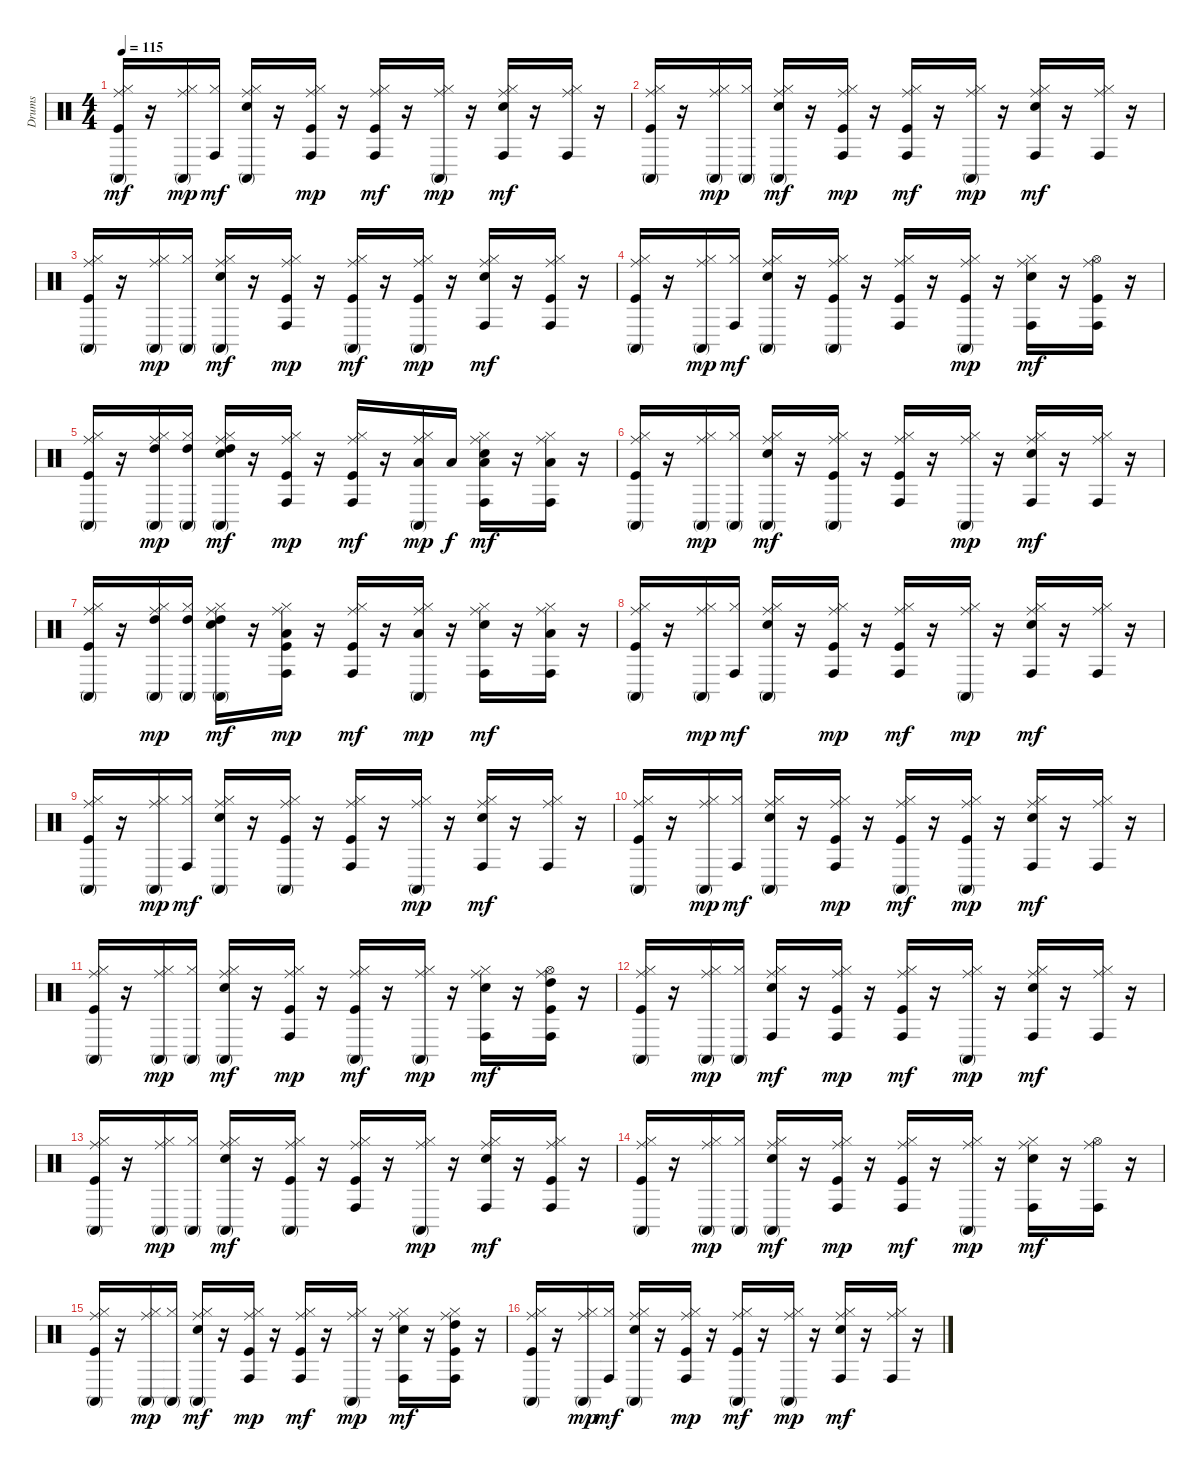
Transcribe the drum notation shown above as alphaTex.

\track ("Drums" "Drums") {instrument percussion}
\staff {score}
\articulation defaults
\ts (4 4)
\tempo 115
\clef neutral
\ks c
("Kick (hit)" "Hi-Hat (closed)" "Ride (middle)" "Conga high (mute)").16{dy mf} r.16 ("Hi-Hat (closed)" "Ride (middle)" "Conga high (mute)").16{dy mp} ("Hi-Hat (closed)" "Conga high (hit)").16{dy mf} ("Snare (hit) 2" "Hi-Hat (closed)" "Ride (middle)" "Conga high (mute)").16 r.16 ("Kick (hit)" "Hi-Hat (closed)" "Ride (middle)" "Conga high (hit)").16{dy mp} r.16 ("Kick (hit)" "Hi-Hat (closed)" "Ride (middle)" "Conga high (hit)").16{dy mf} r.16 ("Hi-Hat (closed)" "Ride (middle)" "Conga high (mute)").16{dy mp} r.16 ("Snare (hit) 2" "Hi-Hat (closed)" "Ride (middle)" "Conga high (hit)").16{dy mf} r.16 ("Hi-Hat (closed)" "Ride (middle)" "Conga high (hit)").16 r.16 |
("Kick (hit)" "Hi-Hat (closed)" "Ride (middle)" "Conga high (mute)").16 r.16 ("Hi-Hat (closed)" "Ride (middle)" "Conga high (mute)").16{dy mp} ("Hi-Hat (closed)" "Conga high (mute)").16 ("Snare (hit) 2" "Hi-Hat (closed)" "Ride (middle)" "Conga high (mute)").16{dy mf} r.16 ("Kick (hit)" "Hi-Hat (closed)" "Ride (middle)" "Conga high (hit)").16{dy mp} r.16 ("Kick (hit)" "Hi-Hat (closed)" "Ride (middle)" "Conga high (hit)").16{dy mf} r.16 ("Hi-Hat (closed)" "Ride (middle)" "Conga high (mute)").16{dy mp} r.16 ("Snare (hit) 2" "Hi-Hat (closed)" "Ride (middle)" "Conga high (hit)").16{dy mf} r.16 ("Hi-Hat (closed)" "Ride (middle)" "Conga high (hit)").16 r.16 |
("Kick (hit)" "Hi-Hat (closed)" "Ride (middle)" "Conga high (mute)").16 r.16 ("Hi-Hat (closed)" "Ride (middle)" "Conga high (mute)").16{dy mp} ("Hi-Hat (closed)" "Conga high (mute)").16 ("Snare (hit) 2" "Hi-Hat (closed)" "Ride (middle)" "Conga high (mute)").16{dy mf} r.16 ("Kick (hit)" "Hi-Hat (closed)" "Ride (middle)" "Conga high (hit)").16{dy mp} r.16 ("Kick (hit)" "Hi-Hat (closed)" "Ride (middle)" "Conga high (mute)").16{dy mf} r.16 ("Kick (hit)" "Hi-Hat (closed)" "Ride (middle)" "Conga high (mute)").16{dy mp} r.16 ("Snare (hit) 2" "Hi-Hat (closed)" "Ride (middle)" "Conga high (hit)").16{dy mf} r.16 ("Kick (hit)" "Hi-Hat (closed)" "Ride (middle)" "Conga high (hit)").16 r.16 |
("Kick (hit)" "Hi-Hat (closed)" "Ride (middle)" "Conga high (mute)").16 r.16 ("Hi-Hat (closed)" "Ride (middle)" "Conga high (mute)").16{dy mp} ("Hi-Hat (closed)" "Conga high (hit)").16{dy mf} ("Snare (hit) 2" "Hi-Hat (closed)" "Ride (middle)" "Conga high (mute)").16 r.16 ("Kick (hit)" "Hi-Hat (closed)" "Ride (middle)" "Conga high (mute)").16 r.16 ("Kick (hit)" "Hi-Hat (closed)" "Ride (middle)" "Conga high (hit)").16 r.16 ("Kick (hit)" "Hi-Hat (closed)" "Ride (middle)" "Conga high (mute)").16{dy mp} r.16 ("Snare (hit) 2" "Hi-Hat (closed)" "Ride (middle)" "Conga high (hit)").16{dy mf} r.16 ("Kick (hit)" "Hi-Hat (open)" "Ride (middle)" "Conga high (hit)").16 r.16 |
("Kick (hit)" "Hi-Hat (closed)" "Ride (middle)" "Conga high (mute)").16 r.16 ("Hi-Hat (closed)" "Ride (middle)" "High Tom (hit)" "Conga high (mute)").16{dy mp} ("Hi-Hat (closed)" "High Tom (hit)" "Conga high (mute)").16 ("Snare (hit) 2" "Hi-Hat (closed)" "Ride (middle)" "High Tom (hit)" "Conga high (mute)").16{dy mf} r.16 ("Kick (hit)" "Hi-Hat (closed)" "Ride (middle)" "Conga high (hit)").16{dy mp} r.16 ("Kick (hit)" "Hi-Hat (closed)" "Ride (middle)" "Conga high (hit)").16{dy mf} r.16 ("Hi-Hat (closed)" "Ride (middle)" "Low Tom (hit)" "Conga high (mute)").16{dy mp} "Low Tom (hit)".16{dy f} ("Snare (hit) 2" "Hi-Hat (closed)" "Ride (middle)" "Low Tom (hit)" "Conga high (hit)").16{dy mf} r.16 ("Hi-Hat (closed)" "Ride (middle)" "Low Tom (hit)" "Conga high (hit)").16 r.16 |
("Kick (hit)" "Hi-Hat (closed)" "Ride (middle)" "Conga high (mute)").16 r.16 ("Hi-Hat (closed)" "Ride (middle)" "Conga high (mute)").16{dy mp} ("Hi-Hat (closed)" "Conga high (mute)").16 ("Snare (hit) 2" "Hi-Hat (closed)" "Ride (middle)" "Conga high (mute)").16{dy mf} r.16 ("Kick (hit)" "Hi-Hat (closed)" "Ride (middle)" "Conga high (mute)").16 r.16 ("Kick (hit)" "Hi-Hat (closed)" "Ride (middle)" "Conga high (hit)").16 r.16 ("Hi-Hat (closed)" "Ride (middle)" "Conga high (mute)").16{dy mp} r.16 ("Snare (hit) 2" "Hi-Hat (closed)" "Ride (middle)" "Conga high (hit)").16{dy mf} r.16 ("Hi-Hat (closed)" "Ride (middle)" "Conga high (hit)").16 r.16 |
("Kick (hit)" "Hi-Hat (closed)" "Ride (middle)" "Conga high (mute)").16 r.16 ("Hi-Hat (closed)" "Ride (middle)" "High Tom (hit)" "Conga high (mute)").16{dy mp} ("Hi-Hat (closed)" "High Tom (hit)" "Conga high (mute)").16 ("Snare (hit) 2" "Hi-Hat (closed)" "Ride (middle)" "High Tom (hit)" "Conga high (mute)").16{dy mf} r.16 ("Kick (hit)" "Hi-Hat (closed)" "Ride (middle)" "Low Tom (hit)" "Conga high (hit)").16{dy mp} r.16 ("Kick (hit)" "Hi-Hat (closed)" "Ride (middle)" "Conga high (hit)").16{dy mf} r.16 ("Hi-Hat (closed)" "Ride (middle)" "Low Tom (hit)" "Conga high (mute)").16{dy mp} r.16 ("Snare (hit) 2" "Hi-Hat (closed)" "Ride (middle)" "Conga high (hit)").16{dy mf} r.16 ("Hi-Hat (closed)" "Ride (middle)" "Low Floor Tom (hit)" "Conga high (hit)").16 r.16 |
("Kick (hit)" "Hi-Hat (closed)" "Ride (middle)" "Conga high (mute)").16 r.16 ("Hi-Hat (closed)" "Ride (middle)" "Conga high (mute)").16{dy mp} ("Hi-Hat (closed)" "Conga high (hit)").16{dy mf} ("Snare (hit) 2" "Hi-Hat (closed)" "Ride (middle)" "Conga high (mute)").16 r.16 ("Kick (hit)" "Hi-Hat (closed)" "Ride (middle)" "Conga high (hit)").16{dy mp} r.16 ("Kick (hit)" "Hi-Hat (closed)" "Ride (middle)" "Conga high (hit)").16{dy mf} r.16 ("Hi-Hat (closed)" "Ride (middle)" "Conga high (mute)").16{dy mp} r.16 ("Snare (hit) 2" "Hi-Hat (closed)" "Ride (middle)" "Conga high (hit)").16{dy mf} r.16 ("Hi-Hat (closed)" "Ride (middle)" "Conga high (hit)").16 r.16 |
("Kick (hit)" "Hi-Hat (closed)" "Ride (middle)" "Conga high (mute)").16 r.16 ("Hi-Hat (closed)" "Ride (middle)" "Conga high (mute)").16{dy mp} ("Hi-Hat (closed)" "Conga high (hit)").16{dy mf} ("Snare (hit) 2" "Hi-Hat (closed)" "Ride (middle)" "Conga high (mute)").16 r.16 ("Kick (hit)" "Hi-Hat (closed)" "Ride (middle)" "Conga high (mute)").16 r.16 ("Kick (hit)" "Hi-Hat (closed)" "Ride (middle)" "Conga high (hit)").16 r.16 ("Hi-Hat (closed)" "Ride (middle)" "Conga high (mute)").16{dy mp} r.16 ("Snare (hit) 2" "Hi-Hat (closed)" "Ride (middle)" "Conga high (hit)").16{dy mf} r.16 ("Hi-Hat (closed)" "Ride (middle)" "Conga high (hit)").16 r.16 |
("Kick (hit)" "Hi-Hat (closed)" "Ride (middle)" "Conga high (mute)").16 r.16 ("Hi-Hat (closed)" "Ride (middle)" "Conga high (mute)").16{dy mp} ("Hi-Hat (closed)" "Conga high (hit)").16{dy mf} ("Snare (hit) 2" "Hi-Hat (closed)" "Ride (middle)" "Conga high (mute)").16 r.16 ("Kick (hit)" "Hi-Hat (closed)" "Ride (middle)" "Conga high (hit)").16{dy mp} r.16 ("Kick (hit)" "Hi-Hat (closed)" "Ride (middle)" "Conga high (mute)").16{dy mf} r.16 ("Kick (hit)" "Hi-Hat (closed)" "Ride (middle)" "Conga high (mute)").16{dy mp} r.16 ("Snare (hit) 2" "Hi-Hat (closed)" "Ride (middle)" "Conga high (hit)").16{dy mf} r.16 ("Hi-Hat (closed)" "Ride (middle)" "Conga high (hit)").16 r.16 |
("Kick (hit)" "Hi-Hat (closed)" "Ride (middle)" "Conga high (mute)").16 r.16 ("Hi-Hat (closed)" "Ride (middle)" "Conga high (mute)").16{dy mp} ("Hi-Hat (closed)" "Conga high (mute)").16 ("Snare (hit) 2" "Hi-Hat (closed)" "Ride (middle)" "Conga high (mute)").16{dy mf} r.16 ("Kick (hit)" "Hi-Hat (closed)" "Ride (middle)" "Conga high (hit)").16{dy mp} r.16 ("Kick (hit)" "Hi-Hat (closed)" "Ride (middle)" "Conga high (mute)").16{dy mf} r.16 ("Hi-Hat (closed)" "Ride (middle)" "Conga high (mute)").16{dy mp} r.16 ("Snare (hit) 2" "Hi-Hat (closed)" "Ride (middle)" "Conga high (hit)").16{dy mf} r.16 ("Kick (hit)" "Hi-Hat (open)" "Ride (middle)" "High Tom (hit)" "Conga high (hit)").16 r.16 |
("Kick (hit)" "Hi-Hat (closed)" "Ride (middle)" "Conga high (mute)").16 r.16 ("Hi-Hat (closed)" "Ride (middle)" "Conga high (mute)").16{dy mp} ("Hi-Hat (closed)" "Conga high (mute)").16 ("Snare (hit) 2" "Hi-Hat (closed)" "Ride (middle)" "Conga high (hit)").16{dy mf} r.16 ("Kick (hit)" "Hi-Hat (closed)" "Ride (middle)" "Conga high (hit)").16{dy mp} r.16 ("Kick (hit)" "Hi-Hat (closed)" "Ride (middle)" "Conga high (hit)").16{dy mf} r.16 ("Hi-Hat (closed)" "Ride (middle)" "Conga high (mute)").16{dy mp} r.16 ("Snare (hit) 2" "Hi-Hat (closed)" "Ride (middle)" "Conga high (hit)").16{dy mf} r.16 ("Hi-Hat (closed)" "Ride (middle)" "Conga high (hit)").16 r.16 |
("Kick (hit)" "Hi-Hat (closed)" "Ride (middle)" "Conga high (mute)").16 r.16 ("Hi-Hat (closed)" "Ride (middle)" "Conga high (mute)").16{dy mp} ("Hi-Hat (closed)" "Conga high (mute)").16 ("Snare (hit) 2" "Hi-Hat (closed)" "Ride (middle)" "Conga high (mute)").16{dy mf} r.16 ("Kick (hit)" "Hi-Hat (closed)" "Ride (middle)" "Conga high (mute)").16 r.16 ("Kick (hit)" "Hi-Hat (closed)" "Ride (middle)" "Conga high (hit)").16 r.16 ("Hi-Hat (closed)" "Ride (middle)" "Conga high (mute)").16{dy mp} r.16 ("Snare (hit) 2" "Hi-Hat (closed)" "Ride (middle)" "Conga high (hit)").16{dy mf} r.16 ("Kick (hit)" "Hi-Hat (closed)" "Ride (middle)" "Conga high (hit)").16 r.16 |
("Kick (hit)" "Hi-Hat (closed)" "Ride (middle)" "Conga high (mute)").16 r.16 ("Hi-Hat (closed)" "Ride (middle)" "Conga high (mute)").16{dy mp} ("Hi-Hat (closed)" "Conga high (mute)").16 ("Snare (hit) 2" "Hi-Hat (closed)" "Ride (middle)" "Conga high (mute)").16{dy mf} r.16 ("Kick (hit)" "Hi-Hat (closed)" "Ride (middle)" "Conga high (hit)").16{dy mp} r.16 ("Kick (hit)" "Hi-Hat (closed)" "Ride (middle)" "Conga high (hit)").16{dy mf} r.16 ("Hi-Hat (closed)" "Ride (middle)" "Conga high (mute)").16{dy mp} r.16 ("Snare (hit) 2" "Hi-Hat (closed)" "Ride (middle)" "Conga high (hit)").16{dy mf} r.16 ("Hi-Hat (open)" "Ride (middle)" "Conga high (hit)").16 r.16 |
("Kick (hit)" "Hi-Hat (closed)" "Ride (middle)" "Conga high (mute)").16 r.16 ("Hi-Hat (closed)" "Ride (middle)" "Conga high (mute)").16{dy mp} ("Hi-Hat (closed)" "Conga high (mute)").16 ("Snare (hit) 2" "Hi-Hat (closed)" "Ride (middle)" "Conga high (mute)").16{dy mf} r.16 ("Kick (hit)" "Hi-Hat (closed)" "Ride (middle)" "Conga high (hit)").16{dy mp} r.16 ("Kick (hit)" "Hi-Hat (closed)" "Ride (middle)" "Conga high (hit)").16{dy mf} r.16 ("Hi-Hat (closed)" "Ride (middle)" "Conga high (mute)").16{dy mp} r.16 ("Snare (hit) 2" "Hi-Hat (closed)" "Ride (middle)" "Conga high (hit)").16{dy mf} r.16 ("Kick (hit)" "Hi-Hat (closed)" "Ride (middle)" "High Tom (hit)" "Conga high (hit)").16 r.16 |
("Kick (hit)" "Hi-Hat (closed)" "Ride (middle)" "Conga high (mute)").16 r.16 ("Hi-Hat (closed)" "Ride (middle)" "Conga high (mute)").16{dy mp} ("Hi-Hat (closed)" "Conga high (hit)").16{dy mf} ("Snare (hit) 2" "Hi-Hat (closed)" "Ride (middle)" "Conga high (mute)").16 r.16 ("Kick (hit)" "Hi-Hat (closed)" "Ride (middle)" "Conga high (hit)").16{dy mp} r.16 ("Kick (hit)" "Hi-Hat (closed)" "Ride (middle)" "Conga high (mute)").16{dy mf} r.16 ("Hi-Hat (closed)" "Ride (middle)" "Conga high (mute)").16{dy mp} r.16 ("Snare (hit) 2" "Hi-Hat (closed)" "Ride (middle)" "Conga high (hit)").16{dy mf} r.16 ("Hi-Hat (closed)" "Ride (middle)" "Conga high (hit)").16 r.16
